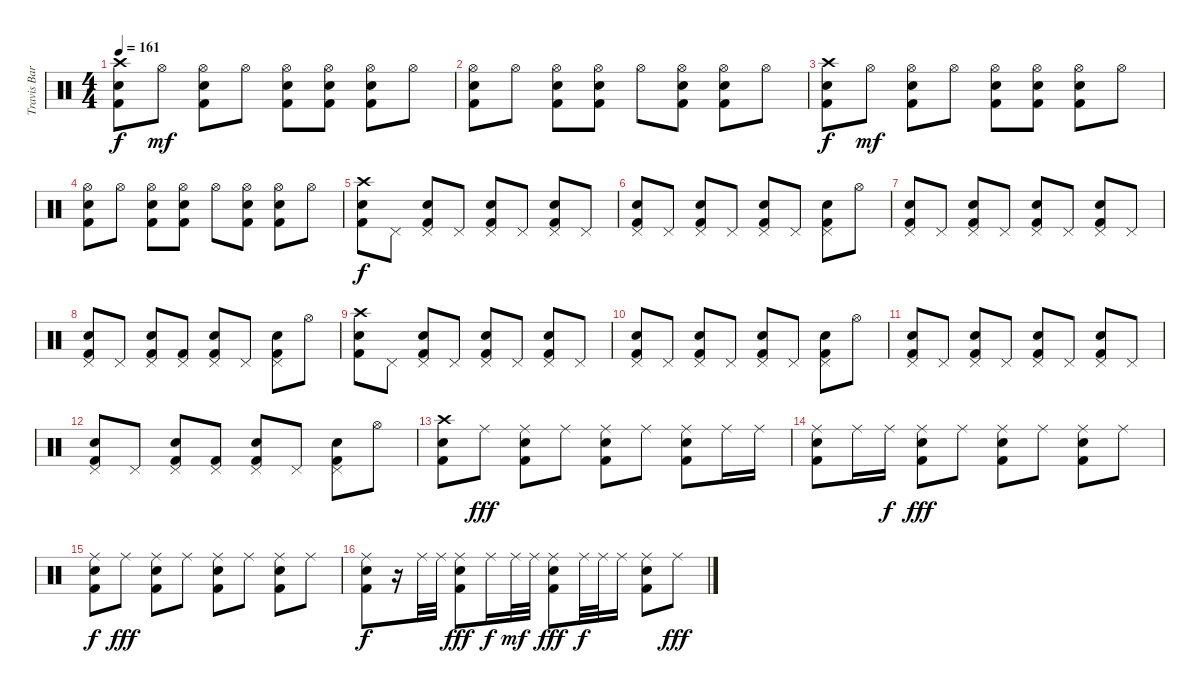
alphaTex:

\track ("Travis Barker - Drums" "Travis Bar") {instrument percussion}
\staff {score}
\articulation defaults
\ts (4 4)
\tempo 161
\clef neutral
\ks c
("Crash high (hit)" "Electric Snare (hit)" "Kick (hit) 2").8{dy f} "Hi-Hat (open)".8{dy mf} ("Hi-Hat (open)" "Electric Snare (hit)" "Kick (hit) 2").8 "Hi-Hat (open)".8 ("Hi-Hat (open)" "Electric Snare (hit)" "Kick (hit) 2").8 ("Hi-Hat (open)" "Electric Snare (hit)" "Kick (hit) 2").8 ("Hi-Hat (open)" "Electric Snare (hit)" "Kick (hit) 2").8 "Hi-Hat (open)".8 |
("Hi-Hat (open)" "Electric Snare (hit)" "Kick (hit) 2").8 "Hi-Hat (open)".8 ("Hi-Hat (open)" "Electric Snare (hit)" "Kick (hit) 2").8 ("Hi-Hat (open)" "Electric Snare (hit)" "Kick (hit) 2").8 "Hi-Hat (open)".8 ("Hi-Hat (open)" "Electric Snare (hit)" "Kick (hit) 2").8 ("Hi-Hat (open)" "Electric Snare (hit)" "Kick (hit) 2").8 "Hi-Hat (open)".8 |
("Crash high (hit)" "Electric Snare (hit)" "Kick (hit) 2").8{dy f} "Hi-Hat (open)".8{dy mf} ("Hi-Hat (open)" "Electric Snare (hit)" "Kick (hit) 2").8 "Hi-Hat (open)".8 ("Hi-Hat (open)" "Electric Snare (hit)" "Kick (hit) 2").8 ("Hi-Hat (open)" "Electric Snare (hit)" "Kick (hit) 2").8 ("Hi-Hat (open)" "Electric Snare (hit)" "Kick (hit) 2").8 "Hi-Hat (open)".8 |
("Hi-Hat (open)" "Electric Snare (hit)" "Kick (hit) 2").8 "Hi-Hat (open)".8 ("Hi-Hat (open)" "Electric Snare (hit)" "Kick (hit) 2").8 ("Hi-Hat (open)" "Electric Snare (hit)" "Kick (hit) 2").8 "Hi-Hat (open)".8 ("Hi-Hat (open)" "Electric Snare (hit)" "Kick (hit) 2").8 ("Hi-Hat (open)" "Electric Snare (hit)" "Kick (hit) 2").8 "Hi-Hat (open)".8 |
("Crash high (hit)" "Electric Snare (hit)" "Kick (hit) 2").8{dy f} "Pedal Hi-Hat (hit)".8 ("Pedal Hi-Hat (hit)" "Electric Snare (hit)" "Kick (hit) 2").8 "Pedal Hi-Hat (hit)".8 ("Pedal Hi-Hat (hit)" "Electric Snare (hit)" "Kick (hit) 2").8 "Pedal Hi-Hat (hit)".8 ("Pedal Hi-Hat (hit)" "Electric Snare (hit)" "Kick (hit) 2").8 "Pedal Hi-Hat (hit)".8 |
("Pedal Hi-Hat (hit)" "Electric Snare (hit)" "Kick (hit) 2").8 "Pedal Hi-Hat (hit)".8 ("Pedal Hi-Hat (hit)" "Electric Snare (hit)" "Kick (hit) 2").8 "Pedal Hi-Hat (hit)".8 ("Pedal Hi-Hat (hit)" "Electric Snare (hit)" "Kick (hit) 2").8 "Pedal Hi-Hat (hit)".8 ("Pedal Hi-Hat (hit)" "Electric Snare (hit)" "Kick (hit) 2").8 "Hi-Hat (open)".8 |
("Pedal Hi-Hat (hit)" "Electric Snare (hit)" "Kick (hit) 2").8 "Pedal Hi-Hat (hit)".8 ("Pedal Hi-Hat (hit)" "Electric Snare (hit)" "Kick (hit) 2").8 "Pedal Hi-Hat (hit)".8 ("Pedal Hi-Hat (hit)" "Electric Snare (hit)" "Kick (hit) 2").8 "Pedal Hi-Hat (hit)".8 ("Pedal Hi-Hat (hit)" "Electric Snare (hit)" "Kick (hit) 2").8 "Pedal Hi-Hat (hit)".8 |
("Pedal Hi-Hat (hit)" "Electric Snare (hit)" "Kick (hit) 2").8 "Pedal Hi-Hat (hit)".8 ("Pedal Hi-Hat (hit)" "Electric Snare (hit)" "Kick (hit) 2").8 ("Pedal Hi-Hat (hit)" "Kick (hit) 2").8 ("Pedal Hi-Hat (hit)" "Electric Snare (hit)" "Kick (hit) 2").8 "Pedal Hi-Hat (hit)".8 ("Pedal Hi-Hat (hit)" "Electric Snare (hit)" "Kick (hit) 2").8 "Hi-Hat (open)".8 |
("Crash high (hit)" "Electric Snare (hit)" "Kick (hit) 2").8 "Pedal Hi-Hat (hit)".8 ("Pedal Hi-Hat (hit)" "Electric Snare (hit)" "Kick (hit) 2").8 "Pedal Hi-Hat (hit)".8 ("Pedal Hi-Hat (hit)" "Electric Snare (hit)" "Kick (hit) 2").8 "Pedal Hi-Hat (hit)".8 ("Pedal Hi-Hat (hit)" "Electric Snare (hit)" "Kick (hit) 2").8 "Pedal Hi-Hat (hit)".8 |
("Pedal Hi-Hat (hit)" "Electric Snare (hit)" "Kick (hit) 2").8 "Pedal Hi-Hat (hit)".8 ("Pedal Hi-Hat (hit)" "Electric Snare (hit)" "Kick (hit) 2").8 "Pedal Hi-Hat (hit)".8 ("Pedal Hi-Hat (hit)" "Electric Snare (hit)" "Kick (hit) 2").8 "Pedal Hi-Hat (hit)".8 ("Pedal Hi-Hat (hit)" "Electric Snare (hit)" "Kick (hit) 2").8 "Hi-Hat (open)".8 |
("Pedal Hi-Hat (hit)" "Electric Snare (hit)" "Kick (hit) 2").8 "Pedal Hi-Hat (hit)".8 ("Pedal Hi-Hat (hit)" "Electric Snare (hit)" "Kick (hit) 2").8 "Pedal Hi-Hat (hit)".8 ("Pedal Hi-Hat (hit)" "Electric Snare (hit)" "Kick (hit) 2").8 "Pedal Hi-Hat (hit)".8 ("Pedal Hi-Hat (hit)" "Electric Snare (hit)" "Kick (hit) 2").8 "Pedal Hi-Hat (hit)".8 |
("Pedal Hi-Hat (hit)" "Electric Snare (hit)" "Kick (hit) 2").8 "Pedal Hi-Hat (hit)".8 ("Pedal Hi-Hat (hit)" "Electric Snare (hit)" "Kick (hit) 2").8 ("Pedal Hi-Hat (hit)" "Kick (hit) 2").8 ("Pedal Hi-Hat (hit)" "Electric Snare (hit)" "Kick (hit) 2").8 "Pedal Hi-Hat (hit)".8 ("Pedal Hi-Hat (hit)" "Electric Snare (hit)" "Kick (hit) 2").8 "Hi-Hat (open)".8 |
("Crash high (hit)" "Electric Snare (hit)" "Kick (hit) 2").8 "Ride (middle)".8{dy fff} ("Ride (middle)" "Electric Snare (hit)" "Kick (hit) 2").8 "Ride (middle)".8 ("Ride (middle)" "Electric Snare (hit)" "Kick (hit) 2").8 "Ride (middle)".8 ("Ride (middle)" "Electric Snare (hit)" "Kick (hit) 2").8 "Ride (middle)".16 "Ride (middle)".16 |
("Ride (middle)" "Electric Snare (hit)" "Kick (hit) 2").8 "Ride (middle)".16 "Ride (middle)".16{dy f} ("Ride (middle)" "Electric Snare (hit)" "Kick (hit) 2").8{dy fff} "Ride (middle)".8 ("Ride (middle)" "Electric Snare (hit)" "Kick (hit) 2").8 "Ride (middle)".8 ("Ride (middle)" "Electric Snare (hit)" "Kick (hit) 2").8 "Ride (middle)".8 |
("Ride (middle)" "Electric Snare (hit)" "Kick (hit) 2").8{dy f} "Ride (middle)".8{dy fff} ("Ride (middle)" "Electric Snare (hit)" "Kick (hit) 2").8 "Ride (middle)".8 ("Ride (middle)" "Electric Snare (hit)" "Kick (hit) 2").8 "Ride (middle)".8 ("Ride (middle)" "Electric Snare (hit)" "Kick (hit) 2").8 "Ride (middle)".8 |
("Ride (middle)" "Electric Snare (hit)" "Kick (hit) 2").8{dy f} r.16 "Ride (middle)".32 "Ride (middle)".32 ("Ride (middle)" "Electric Snare (hit)" "Kick (hit) 2").8{dy fff} "Ride (middle)".16{dy f} "Ride (middle)".32{dy mf} "Ride (middle)".32 ("Ride (middle)" "Electric Snare (hit)" "Kick (hit) 2").8{dy fff} "Ride (middle)".32{dy f} "Ride (middle)".32 "Ride (middle)".16 ("Ride (middle)" "Electric Snare (hit)" "Kick (hit) 2").8 "Ride (middle)".8{dy fff}
